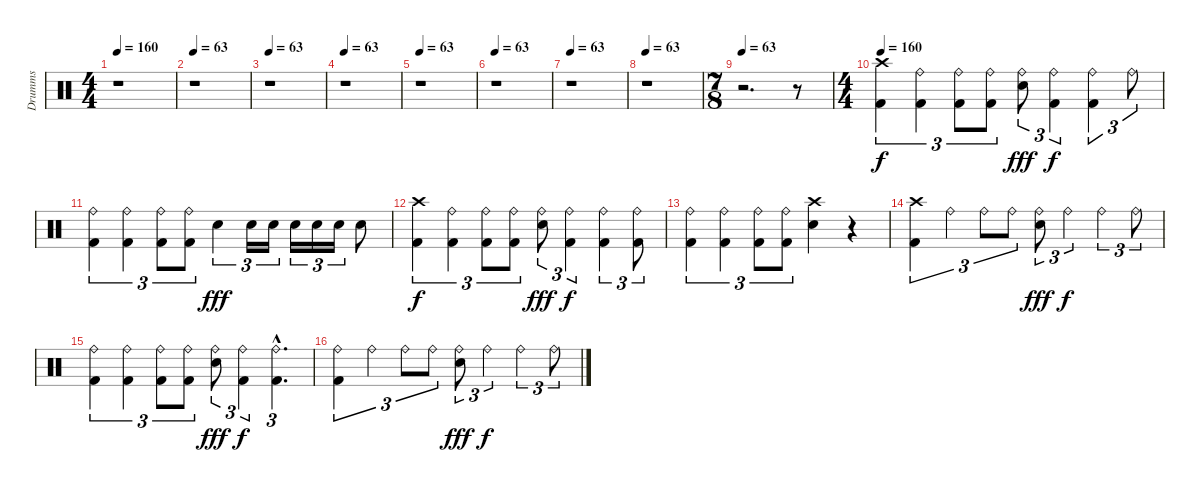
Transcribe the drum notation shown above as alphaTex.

\track ("Drumms" "Drumms") {instrument percussion}
\staff {score}
\articulation defaults
\ts (4 4)
\tempo 160
\tempo 63
\tempo 160
\clef neutral
\ks c
r.1{dy f} |
\tempo 63
r.1 |
\tempo 63
r.1 |
\tempo 63
r.1 |
\tempo 63
r.1 |
\tempo 63
r.1 |
\tempo 63
r.1 |
\tempo 63
r.1 |
\ts (7 8)
\tempo 63
r.2{d} r.8 |
\ts (4 4)
\tempo 160
("Crash high (hit)" "Kick (hit) 2").4{tu (3 2)} ("Ride (bell)" "Kick (hit) 2").4{tu (3 2)} ("Ride (bell)" "Kick (hit) 2").8{tu (3 2)} ("Ride (bell)" "Kick (hit) 2").8{tu (3 2)} ("Ride (bell)" "Snare (hit) 2").8{tu (3 2) dy fff} ("Ride (bell)" "Kick (hit) 2").4{tu (3 2) dy f} ("Ride (bell)" "Kick (hit) 2").4{tu (3 2)} "Ride (bell)".8{tu (3 2)} |
("Ride (bell)" "Kick (hit) 2").4{tu (3 2)} ("Ride (bell)" "Kick (hit) 2").4{tu (3 2)} ("Ride (bell)" "Kick (hit) 2").8{tu (3 2)} ("Ride (bell)" "Kick (hit) 2").8{tu (3 2)} "Snare (hit) 2".4{tu (3 2) dy fff} "Snare (hit) 2".16{tu (3 2)} "Snare (hit) 2".16{tu (3 2)} "Snare (hit) 2".16{tu (3 2)} "Snare (hit) 2".16{tu (3 2)} "Snare (hit) 2".16{tu (3 2)} "Snare (hit) 2".8 |
("Crash high (hit)" "Kick (hit) 2").4{tu (3 2) dy f} ("Ride (bell)" "Kick (hit) 2").4{tu (3 2)} ("Ride (bell)" "Kick (hit) 2").8{tu (3 2)} ("Ride (bell)" "Kick (hit) 2").8{tu (3 2)} ("Ride (bell)" "Snare (hit) 2").8{tu (3 2) dy fff} ("Ride (bell)" "Kick (hit) 2").4{tu (3 2) dy f} ("Ride (bell)" "Kick (hit) 2").4{tu (3 2)} ("Ride (bell)" "Kick (hit) 2").8{tu (3 2)} |
("Ride (bell)" "Kick (hit) 2").4{tu (3 2)} ("Ride (bell)" "Kick (hit) 2").4{tu (3 2)} ("Ride (bell)" "Kick (hit) 2").8{tu (3 2)} ("Ride (bell)" "Kick (hit) 2").8{tu (3 2)} ("Crash high (hit)" "Electric Snare (hit)").4 r.4 |
\section ("" "")
("Crash high (hit)" "Kick (hit) 2").4{tu (3 2)} "Ride (bell)".4{tu (3 2)} "Ride (bell)".8{tu (3 2)} "Ride (bell)".8{tu (3 2)} ("Ride (bell)" "Snare (hit) 2").8{tu (3 2) dy fff} "Ride (bell)".4{tu (3 2) dy f} "Ride (bell)".4{tu (3 2)} "Ride (bell)".8{tu (3 2)} |
("Ride (bell)" "Kick (hit) 2").4{tu (3 2)} ("Ride (bell)" "Kick (hit) 2").4{tu (3 2)} ("Ride (bell)" "Kick (hit) 2").8{tu (3 2)} ("Ride (bell)" "Kick (hit) 2").8{tu (3 2)} ("Ride (bell)" "Snare (hit) 2").8{tu (3 2) dy fff} ("Ride (bell)" "Kick (hit) 2").4{tu (3 2) dy f} ("Ride (bell)" "Kick (hit) 2"{hac}).4{d tu (3 2)} |
("Ride (bell)" "Kick (hit) 2").4{tu (3 2)} "Ride (bell)".4{tu (3 2)} "Ride (bell)".8{tu (3 2)} "Ride (bell)".8{tu (3 2)} ("Ride (bell)" "Snare (hit) 2").8{tu (3 2) dy fff} "Ride (bell)".4{tu (3 2) dy f} "Ride (bell)".4{tu (3 2)} "Ride (bell)".8{tu (3 2)}
